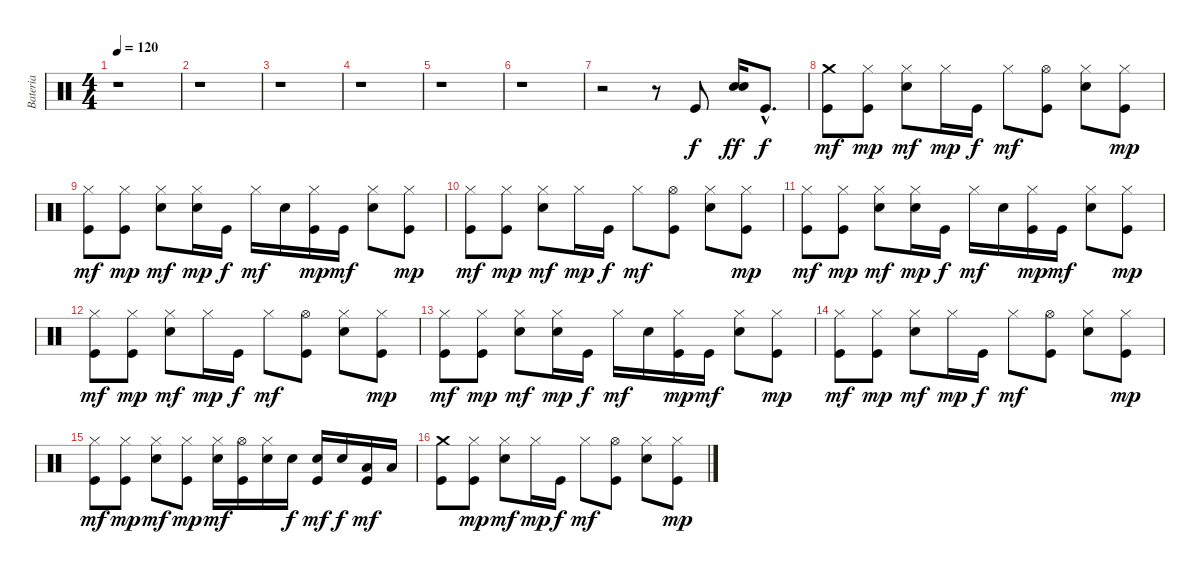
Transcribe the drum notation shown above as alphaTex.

\track ("Bateria" "Bateria") {instrument percussion}
\staff {score}
\articulation defaults
\ts (4 4)
\tempo 120
\clef neutral
\ks c
r.1{dy mp} |
r.1 |
r.1 |
r.1 |
r.1 |
r.1 |
r.2 r.8 "Kick (hit)".8{dy f} ("Snare (hit) 2" "Snare (hit) 2").16{dy ff} "Kick (hit)"{hac}.8{d dy f} |
("Kick (hit)" "Crash medium (hit)").8{dy mf} ("Kick (hit)" "Hi-Hat (closed)").8{dy mp} ("Snare (hit) 2" "Hi-Hat (closed)").8{dy mf} "Hi-Hat (closed)".16{dy mp} "Kick (hit)".16{dy f} "Hi-Hat (closed)".8{dy mf} ("Kick (hit)" "Hi-Hat (open)").8 ("Snare (hit) 2" "Hi-Hat (closed)").8 ("Kick (hit)" "Hi-Hat (closed)").8{dy mp} |
("Kick (hit)" "Hi-Hat (closed)").8{dy mf} ("Kick (hit)" "Hi-Hat (closed)").8{dy mp} ("Snare (hit) 2" "Hi-Hat (closed)").8{dy mf} ("Snare (hit) 2" "Hi-Hat (closed)").16{dy mp} "Kick (hit)".16{dy f} "Hi-Hat (closed)".16{dy mf} "Snare (hit) 2".16 ("Kick (hit)" "Hi-Hat (closed)").16{dy mp} "Kick (hit)".16{dy mf} ("Snare (hit) 2" "Hi-Hat (closed)").8 ("Kick (hit)" "Hi-Hat (closed)").8{dy mp} |
("Kick (hit)" "Hi-Hat (closed)").8{dy mf} ("Kick (hit)" "Hi-Hat (closed)").8{dy mp} ("Snare (hit) 2" "Hi-Hat (closed)").8{dy mf} "Hi-Hat (closed)".16{dy mp} "Kick (hit)".16{dy f} "Hi-Hat (closed)".8{dy mf} ("Kick (hit)" "Hi-Hat (open)").8 ("Snare (hit) 2" "Hi-Hat (closed)").8 ("Kick (hit)" "Hi-Hat (closed)").8{dy mp} |
("Kick (hit)" "Hi-Hat (closed)").8{dy mf} ("Kick (hit)" "Hi-Hat (closed)").8{dy mp} ("Snare (hit) 2" "Hi-Hat (closed)").8{dy mf} ("Snare (hit) 2" "Hi-Hat (closed)").16{dy mp} "Kick (hit)".16{dy f} "Hi-Hat (closed)".16{dy mf} "Snare (hit) 2".16 ("Kick (hit)" "Hi-Hat (closed)").16{dy mp} "Kick (hit)".16{dy mf} ("Snare (hit) 2" "Hi-Hat (closed)").8 ("Kick (hit)" "Hi-Hat (closed)").8{dy mp} |
("Kick (hit)" "Hi-Hat (closed)").8{dy mf} ("Kick (hit)" "Hi-Hat (closed)").8{dy mp} ("Snare (hit) 2" "Hi-Hat (closed)").8{dy mf} "Hi-Hat (closed)".16{dy mp} "Kick (hit)".16{dy f} "Hi-Hat (closed)".8{dy mf} ("Kick (hit)" "Hi-Hat (open)").8 ("Snare (hit) 2" "Hi-Hat (closed)").8 ("Kick (hit)" "Hi-Hat (closed)").8{dy mp} |
("Kick (hit)" "Hi-Hat (closed)").8{dy mf} ("Kick (hit)" "Hi-Hat (closed)").8{dy mp} ("Snare (hit) 2" "Hi-Hat (closed)").8{dy mf} ("Snare (hit) 2" "Hi-Hat (closed)").16{dy mp} "Kick (hit)".16{dy f} "Hi-Hat (closed)".16{dy mf} "Snare (hit) 2".16 ("Kick (hit)" "Hi-Hat (closed)").16{dy mp} "Kick (hit)".16{dy mf} ("Snare (hit) 2" "Hi-Hat (closed)").8 ("Kick (hit)" "Hi-Hat (closed)").8{dy mp} |
("Kick (hit)" "Hi-Hat (closed)").8{dy mf} ("Kick (hit)" "Hi-Hat (closed)").8{dy mp} ("Snare (hit) 2" "Hi-Hat (closed)").8{dy mf} "Hi-Hat (closed)".16{dy mp} "Kick (hit)".16{dy f} "Hi-Hat (closed)".8{dy mf} ("Kick (hit)" "Hi-Hat (open)").8 ("Snare (hit) 2" "Hi-Hat (closed)").8 ("Kick (hit)" "Hi-Hat (closed)").8{dy mp} |
("Kick (hit)" "Hi-Hat (closed)").8{dy mf} ("Kick (hit)" "Hi-Hat (closed)").8{dy mp} ("Snare (hit) 2" "Hi-Hat (closed)").8{dy mf} ("Kick (hit)" "Hi-Hat (closed)").8{dy mp} ("Snare (hit) 2" "Hi-Hat (closed)").16{dy mf} ("Kick (hit)" "Hi-Hat (open)").16 ("Snare (hit) 2" "Hi-Hat (closed)").16 "Snare (hit) 2".16{dy f} ("Kick (hit)" "Snare (hit) 2").16{dy mf} "Snare (hit) 2".16{dy f} ("Kick (hit)" "Low Tom (hit)").16{dy mf} "Low Floor Tom (hit)".16 |
("Kick (hit)" "Crash medium (hit)").8 ("Kick (hit)" "Hi-Hat (closed)").8{dy mp} ("Snare (hit) 2" "Hi-Hat (closed)").8{dy mf} "Hi-Hat (closed)".16{dy mp} "Kick (hit)".16{dy f} "Hi-Hat (closed)".8{dy mf} ("Kick (hit)" "Hi-Hat (open)").8 ("Snare (hit) 2" "Hi-Hat (closed)").8 ("Kick (hit)" "Hi-Hat (closed)").8{dy mp}
